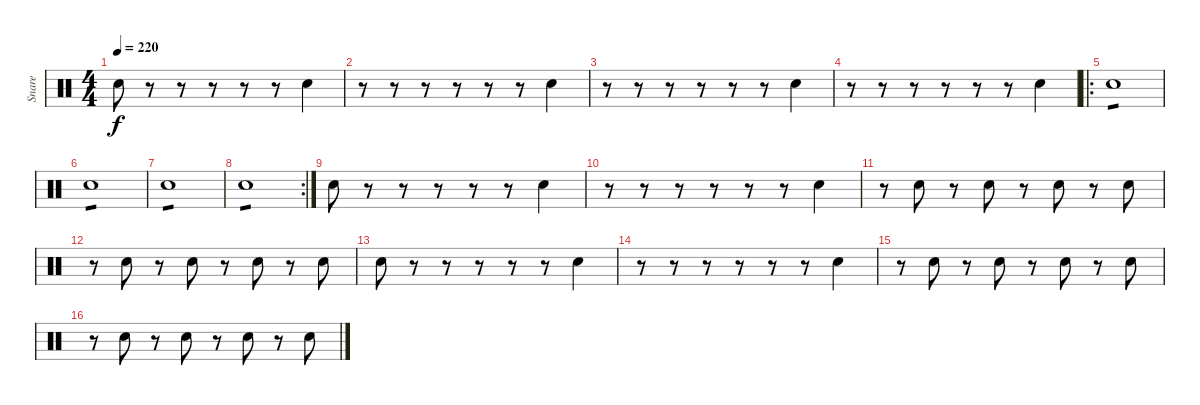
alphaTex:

\track ("Snare" "Snare") {instrument percussion}
\staff {score}
\articulation defaults
\ts (4 4)
\tempo 220
\clef neutral
\ks c "Electric Snare (hit)".8{dy f}
r.8 r.8 r.8 r.8 r.8 "Electric Snare (hit)".4 |
r.8 r.8 r.8 r.8 r.8 r.8 "Electric Snare (hit)".4 |
r.8 r.8 r.8 r.8 r.8 r.8 "Electric Snare (hit)".4 |
r.8 r.8 r.8 r.8 r.8 r.8 "Electric Snare (hit)".4 |
\ro "Electric Snare (hit)".1{tp 1}
|
"Electric Snare (hit)".1{tp 1} |
"Electric Snare (hit)".1{tp 1} |
\rc 2 "Electric Snare (hit)".1{tp 1}
|
"Electric Snare (hit)".8 r.8 r.8 r.8 r.8 r.8 "Electric Snare (hit)".4 |
r.8 r.8 r.8 r.8 r.8 r.8 "Electric Snare (hit)".4 |
r.8 "Electric Snare (hit)".8 r.8 "Electric Snare (hit)".8 r.8 "Electric Snare (hit)".8 r.8 "Electric Snare (hit)".8 |
r.8 "Electric Snare (hit)".8 r.8 "Electric Snare (hit)".8 r.8 "Electric Snare (hit)".8 r.8 "Electric Snare (hit)".8 |
"Electric Snare (hit)".8 r.8 r.8 r.8 r.8 r.8 "Electric Snare (hit)".4 |
r.8 r.8 r.8 r.8 r.8 r.8 "Electric Snare (hit)".4 |
r.8 "Electric Snare (hit)".8 r.8 "Electric Snare (hit)".8 r.8 "Electric Snare (hit)".8 r.8 "Electric Snare (hit)".8 |
r.8 "Electric Snare (hit)".8 r.8 "Electric Snare (hit)".8 r.8 "Electric Snare (hit)".8 r.8 "Electric Snare (hit)".8
